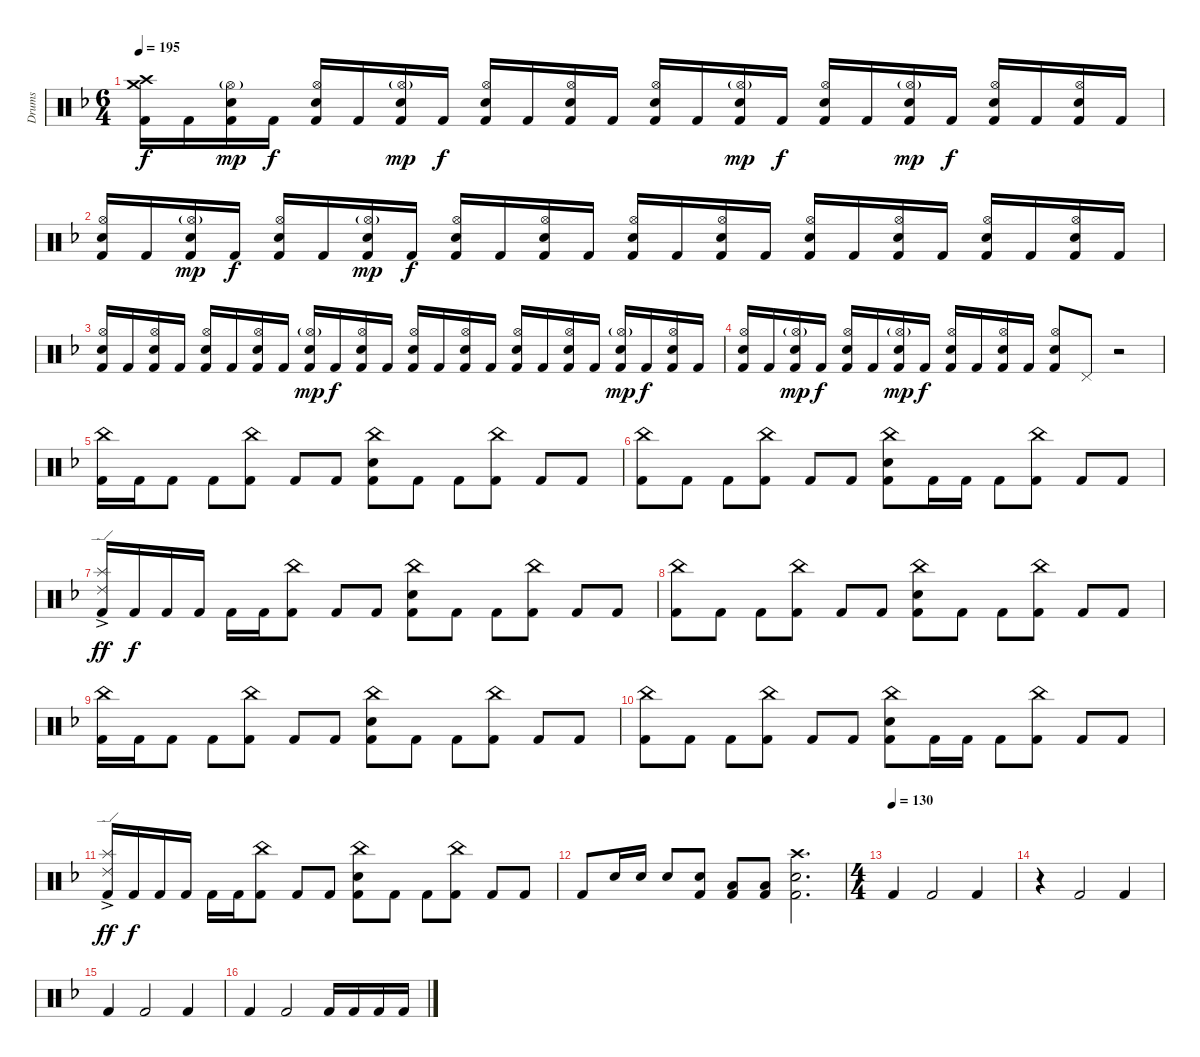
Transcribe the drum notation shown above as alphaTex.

\track ("Drums" "Drums") {instrument percussion}
\staff {score}
\articulation defaults
\ts (6 4)
\tempo 195
\clef neutral
\ks f
("Crash high (hit)" "Crash medium (hit)" "Kick (hit) 2").16{dy f} "Kick (hit) 2".16 ("Hi-Hat (open)"{g} "Electric Snare (hit)" "Kick (hit) 2").16{dy mp} "Kick (hit) 2".16{dy f} ("Hi-Hat (open)" "Electric Snare (hit)" "Kick (hit) 2").16 "Kick (hit) 2".16 ("Hi-Hat (open)"{g} "Electric Snare (hit)" "Kick (hit) 2").16{dy mp} "Kick (hit) 2".16{dy f} ("Hi-Hat (open)" "Electric Snare (hit)" "Kick (hit) 2").16 "Kick (hit) 2".16 ("Hi-Hat (open)" "Electric Snare (hit)" "Kick (hit) 2").16 "Kick (hit) 2".16 ("Hi-Hat (open)" "Electric Snare (hit)" "Kick (hit) 2").16 "Kick (hit) 2".16 ("Hi-Hat (open)"{g} "Electric Snare (hit)" "Kick (hit) 2").16{dy mp} "Kick (hit) 2".16{dy f} ("Hi-Hat (open)" "Electric Snare (hit)" "Kick (hit) 2").16 "Kick (hit) 2".16 ("Hi-Hat (open)"{g} "Electric Snare (hit)" "Kick (hit) 2").16{dy mp} "Kick (hit) 2".16{dy f} ("Hi-Hat (open)" "Electric Snare (hit)" "Kick (hit) 2").16 "Kick (hit) 2".16 ("Hi-Hat (open)" "Electric Snare (hit)" "Kick (hit) 2").16 "Kick (hit) 2".16 |
("Hi-Hat (open)" "Electric Snare (hit)" "Kick (hit) 2").16 "Kick (hit) 2".16 ("Hi-Hat (open)"{g} "Electric Snare (hit)" "Kick (hit) 2").16{dy mp} "Kick (hit) 2".16{dy f} ("Hi-Hat (open)" "Electric Snare (hit)" "Kick (hit) 2").16 "Kick (hit) 2".16 ("Hi-Hat (open)"{g} "Electric Snare (hit)" "Kick (hit) 2").16{dy mp} "Kick (hit) 2".16{dy f} ("Hi-Hat (open)" "Electric Snare (hit)" "Kick (hit) 2").16 "Kick (hit) 2".16 ("Hi-Hat (open)" "Electric Snare (hit)" "Kick (hit) 2").16 "Kick (hit) 2".16 ("Hi-Hat (open)" "Electric Snare (hit)" "Kick (hit) 2").16 "Kick (hit) 2".16 ("Hi-Hat (open)" "Electric Snare (hit)" "Kick (hit) 2").16 "Kick (hit) 2".16 ("Hi-Hat (open)" "Electric Snare (hit)" "Kick (hit) 2").16 "Kick (hit) 2".16 ("Hi-Hat (open)" "Electric Snare (hit)" "Kick (hit) 2").16 "Kick (hit) 2".16 ("Hi-Hat (open)" "Electric Snare (hit)" "Kick (hit) 2").16 "Kick (hit) 2".16 ("Hi-Hat (open)" "Electric Snare (hit)" "Kick (hit) 2").16 "Kick (hit) 2".16 |
("Hi-Hat (open)" "Electric Snare (hit)" "Kick (hit) 2").16 "Kick (hit) 2".16 ("Hi-Hat (open)" "Electric Snare (hit)" "Kick (hit) 2").16 "Kick (hit) 2".16 ("Hi-Hat (open)" "Electric Snare (hit)" "Kick (hit) 2").16 "Kick (hit) 2".16 ("Hi-Hat (open)" "Electric Snare (hit)" "Kick (hit) 2").16 "Kick (hit) 2".16 ("Hi-Hat (open)"{g} "Electric Snare (hit)" "Kick (hit) 2").16{dy mp} "Kick (hit) 2".16{dy f} ("Hi-Hat (open)" "Electric Snare (hit)" "Kick (hit) 2").16 "Kick (hit) 2".16 ("Hi-Hat (open)" "Electric Snare (hit)" "Kick (hit) 2").16 "Kick (hit) 2".16 ("Hi-Hat (open)" "Electric Snare (hit)" "Kick (hit) 2").16 "Kick (hit) 2".16 ("Hi-Hat (open)" "Electric Snare (hit)" "Kick (hit) 2").16 "Kick (hit) 2".16 ("Hi-Hat (open)" "Electric Snare (hit)" "Kick (hit) 2").16 "Kick (hit) 2".16 ("Hi-Hat (open)"{g} "Electric Snare (hit)" "Kick (hit) 2").16{dy mp} "Kick (hit) 2".16{dy f} ("Hi-Hat (open)" "Electric Snare (hit)" "Kick (hit) 2").16 "Kick (hit) 2".16 |
("Hi-Hat (open)" "Electric Snare (hit)" "Kick (hit) 2").16 "Kick (hit) 2".16 ("Hi-Hat (open)"{g} "Electric Snare (hit)" "Kick (hit) 2").16{dy mp} "Kick (hit) 2".16{dy f} ("Hi-Hat (open)" "Electric Snare (hit)" "Kick (hit) 2").16 "Kick (hit) 2".16 ("Hi-Hat (open)"{g} "Electric Snare (hit)" "Kick (hit) 2").16{dy mp} "Kick (hit) 2".16{dy f} ("Hi-Hat (open)" "Electric Snare (hit)" "Kick (hit) 2").16 "Kick (hit) 2".16 ("Hi-Hat (open)" "Electric Snare (hit)" "Kick (hit) 2").16 "Kick (hit) 2".16 ("Hi-Hat (open)" "Electric Snare (hit)" "Kick (hit) 2").8 "Pedal Hi-Hat (hit)".8 r.2 |
("China (hit)" "Kick (hit) 2").16 "Kick (hit) 2".16 "Kick (hit) 2".8 "Kick (hit) 2".8 ("China (hit)" "Kick (hit) 2").8 "Kick (hit) 2".8 "Kick (hit) 2".8 ("China (hit)" "Electric Snare (hit)" "Kick (hit) 2").8 "Kick (hit) 2".8 "Kick (hit) 2".8 ("China (hit)" "Kick (hit) 2").8 "Kick (hit) 2".8 "Kick (hit) 2".8 |
("China (hit)" "Kick (hit) 2").8 "Kick (hit) 2".8 "Kick (hit) 2".8 ("China (hit)" "Kick (hit) 2").8 "Kick (hit) 2".8 "Kick (hit) 2".8 ("China (hit)" "Electric Snare (hit)" "Kick (hit) 2").8 "Kick (hit) 2".16 "Kick (hit) 2".16 "Kick (hit) 2".8 ("China (hit)" "Kick (hit) 2").8 "Kick (hit) 2".8 "Kick (hit) 2".8 |
("Splash (hit)"{ac} "Ride (edge) 2" "Kick (hit) 2").16{dy ff} "Kick (hit) 2".16{dy f} "Kick (hit) 2".16 "Kick (hit) 2".16 "Kick (hit) 2".16 "Kick (hit) 2".16 ("China (hit)" "Kick (hit) 2").8 "Kick (hit) 2".8 "Kick (hit) 2".8 ("China (hit)" "Electric Snare (hit)" "Kick (hit) 2").8 "Kick (hit) 2".8 "Kick (hit) 2".8 ("China (hit)" "Kick (hit) 2").8 "Kick (hit) 2".8 "Kick (hit) 2".8 |
("China (hit)" "Kick (hit) 2").8 "Kick (hit) 2".8 "Kick (hit) 2".8 ("China (hit)" "Kick (hit) 2").8 "Kick (hit) 2".8 "Kick (hit) 2".8 ("China (hit)" "Electric Snare (hit)" "Kick (hit) 2").8 "Kick (hit) 2".8 "Kick (hit) 2".8 ("China (hit)" "Kick (hit) 2").8 "Kick (hit) 2".8 "Kick (hit) 2".8 |
("China (hit)" "Kick (hit) 2").16 "Kick (hit) 2".16 "Kick (hit) 2".8 "Kick (hit) 2".8 ("China (hit)" "Kick (hit) 2").8 "Kick (hit) 2".8 "Kick (hit) 2".8 ("China (hit)" "Electric Snare (hit)" "Kick (hit) 2").8 "Kick (hit) 2".8 "Kick (hit) 2".8 ("China (hit)" "Kick (hit) 2").8 "Kick (hit) 2".8 "Kick (hit) 2".8 |
("China (hit)" "Kick (hit) 2").8 "Kick (hit) 2".8 "Kick (hit) 2".8 ("China (hit)" "Kick (hit) 2").8 "Kick (hit) 2".8 "Kick (hit) 2".8 ("China (hit)" "Electric Snare (hit)" "Kick (hit) 2").8 "Kick (hit) 2".16 "Kick (hit) 2".16 "Kick (hit) 2".8 ("China (hit)" "Kick (hit) 2").8 "Kick (hit) 2".8 "Kick (hit) 2".8 |
("Splash (hit)"{ac} "Ride (edge) 2" "Kick (hit) 2").16{dy ff} "Kick (hit) 2".16{dy f} "Kick (hit) 2".16 "Kick (hit) 2".16 "Kick (hit) 2".16 "Kick (hit) 2".16 ("China (hit)" "Kick (hit) 2").8 "Kick (hit) 2".8 "Kick (hit) 2".8 ("China (hit)" "Electric Snare (hit)" "Kick (hit) 2").8 "Kick (hit) 2".8 "Kick (hit) 2".8 ("China (hit)" "Kick (hit) 2").8 "Kick (hit) 2".8 "Kick (hit) 2".8 |
"Kick (hit) 2".8 "Electric Snare (hit)".16 "Electric Snare (hit)".16 "Electric Snare (hit)".8 ("Electric Snare (hit)" "Kick (hit) 2").8 ("Low Tom (hit)" "Kick (hit) 2").8 ("Low Tom (hit)" "Kick (hit) 2").8 ("Crash high (hit)" "Electric Snare (hit)" "Kick (hit) 2").2{d} |
\ts (4 4)
\tempo (130)
"Kick (hit) 2".4 "Kick (hit) 2".2 "Kick (hit) 2".4 |
r.4 "Kick (hit) 2".2 "Kick (hit) 2".4 |
"Kick (hit) 2".4 "Kick (hit) 2".2 "Kick (hit) 2".4 |
"Kick (hit) 2".4 "Kick (hit) 2".2 "Kick (hit) 2".16 "Kick (hit) 2".16 "Kick (hit) 2".16 "Kick (hit) 2".16
